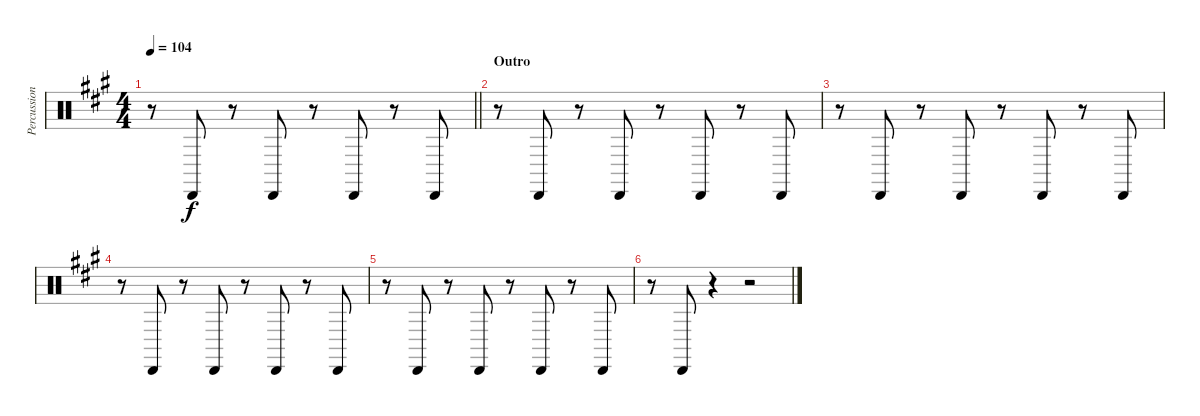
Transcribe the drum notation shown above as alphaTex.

\track ("Percussion" "Percussion") {instrument percussion}
\staff {score}
\articulation defaults
\ts (4 4)
\tempo 104
\clef neutral
\barLineRight lightlight
\ks a
r.8{dy f} "Cabasa (hit)".8 r.8 "Cabasa (hit)".8 r.8 "Cabasa (hit)".8 r.8 "Cabasa (hit)".8 |
\section ("" "Outro")
r.8 "Cabasa (hit)".8 r.8 "Cabasa (hit)".8 r.8 "Cabasa (hit)".8 r.8 "Cabasa (hit)".8 |
r.8 "Cabasa (hit)".8 r.8 "Cabasa (hit)".8 r.8 "Cabasa (hit)".8 r.8 "Cabasa (hit)".8 |
r.8 "Cabasa (hit)".8 r.8 "Cabasa (hit)".8 r.8 "Cabasa (hit)".8 r.8 "Cabasa (hit)".8 |
r.8 "Cabasa (hit)".8 r.8 "Cabasa (hit)".8 r.8 "Cabasa (hit)".8 r.8 "Cabasa (hit)".8 |
r.8 "Cabasa (hit)".8 r.4 r.2
